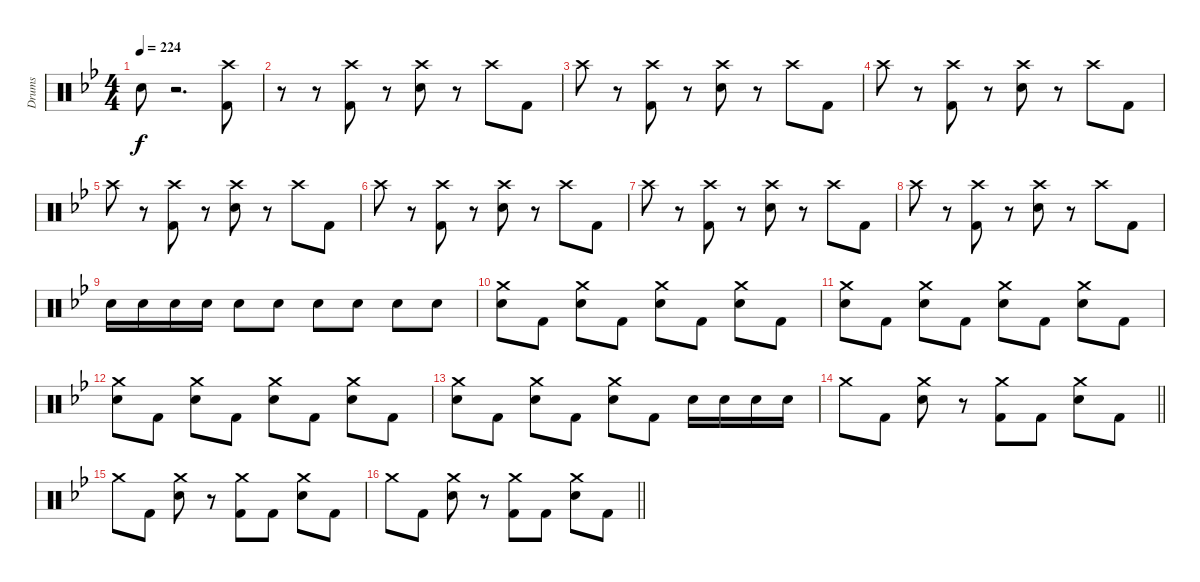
\track ("Drums" "Drums") {instrument percussion}
\staff {score}
\articulation defaults
\ts (4 4)
\tempo 224
\clef neutral
\ks bb "Electric Snare (hit)".8{dy f}
r.2{d} ("Crash high (hit)" "Kick (hit) 2").8 |
r.8 r.8 ("Crash high (hit)" "Kick (hit) 2").8 r.8 ("Crash high (hit)" "Electric Snare (hit)").8 r.8 "Crash high (hit)".8 "Kick (hit) 2".8 |
"Crash high (hit)".8 r.8 ("Crash high (hit)" "Kick (hit) 2").8 r.8 ("Crash high (hit)" "Electric Snare (hit)").8 r.8 "Crash high (hit)".8 "Kick (hit) 2".8 |
"Crash high (hit)".8 r.8 ("Crash high (hit)" "Kick (hit) 2").8 r.8 ("Crash high (hit)" "Electric Snare (hit)").8 r.8 "Crash high (hit)".8 "Kick (hit) 2".8 |
"Crash high (hit)".8 r.8 ("Crash high (hit)" "Kick (hit) 2").8 r.8 ("Crash high (hit)" "Electric Snare (hit)").8 r.8 "Crash high (hit)".8 "Kick (hit) 2".8 |
"Crash high (hit)".8 r.8 ("Crash high (hit)" "Kick (hit) 2").8 r.8 ("Crash high (hit)" "Electric Snare (hit)").8 r.8 "Crash high (hit)".8 "Kick (hit) 2".8 |
"Crash high (hit)".8 r.8 ("Crash high (hit)" "Kick (hit) 2").8 r.8 ("Crash high (hit)" "Electric Snare (hit)").8 r.8 "Crash high (hit)".8 "Kick (hit) 2".8 |
"Crash high (hit)".8 r.8 ("Crash high (hit)" "Kick (hit) 2").8 r.8 ("Crash high (hit)" "Electric Snare (hit)").8 r.8 "Crash high (hit)".8 "Kick (hit) 2".8 |
"Electric Snare (hit)".16 "Electric Snare (hit)".16 "Electric Snare (hit)".16 "Electric Snare (hit)".16 "Electric Snare (hit)".8 "Electric Snare (hit)".8 "Electric Snare (hit)".8 "Electric Snare (hit)".8 "Electric Snare (hit)".8 "Electric Snare (hit)".8 |
("Crash medium (hit)" "Electric Snare (hit)").8 "Kick (hit) 2".8 ("Crash medium (hit)" "Electric Snare (hit)").8 "Kick (hit) 2".8 ("Crash medium (hit)" "Electric Snare (hit)").8 "Kick (hit) 2".8 ("Crash medium (hit)" "Electric Snare (hit)").8 "Kick (hit) 2".8 |
("Crash medium (hit)" "Electric Snare (hit)").8 "Kick (hit) 2".8 ("Crash medium (hit)" "Electric Snare (hit)").8 "Kick (hit) 2".8 ("Crash medium (hit)" "Electric Snare (hit)").8 "Kick (hit) 2".8 ("Crash medium (hit)" "Electric Snare (hit)").8 "Kick (hit) 2".8 |
("Crash medium (hit)" "Electric Snare (hit)").8 "Kick (hit) 2".8 ("Crash medium (hit)" "Electric Snare (hit)").8 "Kick (hit) 2".8 ("Crash medium (hit)" "Electric Snare (hit)").8 "Kick (hit) 2".8 ("Crash medium (hit)" "Electric Snare (hit)").8 "Kick (hit) 2".8 |
("Crash medium (hit)" "Electric Snare (hit)").8 "Kick (hit) 2".8 ("Crash medium (hit)" "Electric Snare (hit)").8 "Kick (hit) 2".8 ("Crash medium (hit)" "Electric Snare (hit)").8 "Kick (hit) 2".8 "Electric Snare (hit)".16 "Electric Snare (hit)".16 "Electric Snare (hit)".16 "Electric Snare (hit)".16 |
\barLineRight lightlight "Crash medium (hit)".8 "Kick (hit) 2".8
("Crash medium (hit)" "Electric Snare (hit)").8 r.8 ("Crash medium (hit)" "Kick (hit) 2").8 "Kick (hit) 2".8 ("Crash medium (hit)" "Electric Snare (hit)").8 "Kick (hit) 2".8 |
"Crash medium (hit)".8 "Kick (hit) 2".8 ("Crash medium (hit)" "Electric Snare (hit)").8 r.8 ("Crash medium (hit)" "Kick (hit) 2").8 "Kick (hit) 2".8 ("Crash medium (hit)" "Electric Snare (hit)").8 "Kick (hit) 2".8 |
\barLineRight lightlight "Crash medium (hit)".8 "Kick (hit) 2".8
("Crash medium (hit)" "Electric Snare (hit)").8 r.8 ("Crash medium (hit)" "Kick (hit) 2").8 "Kick (hit) 2".8 ("Crash medium (hit)" "Electric Snare (hit)").8 "Kick (hit) 2".8
